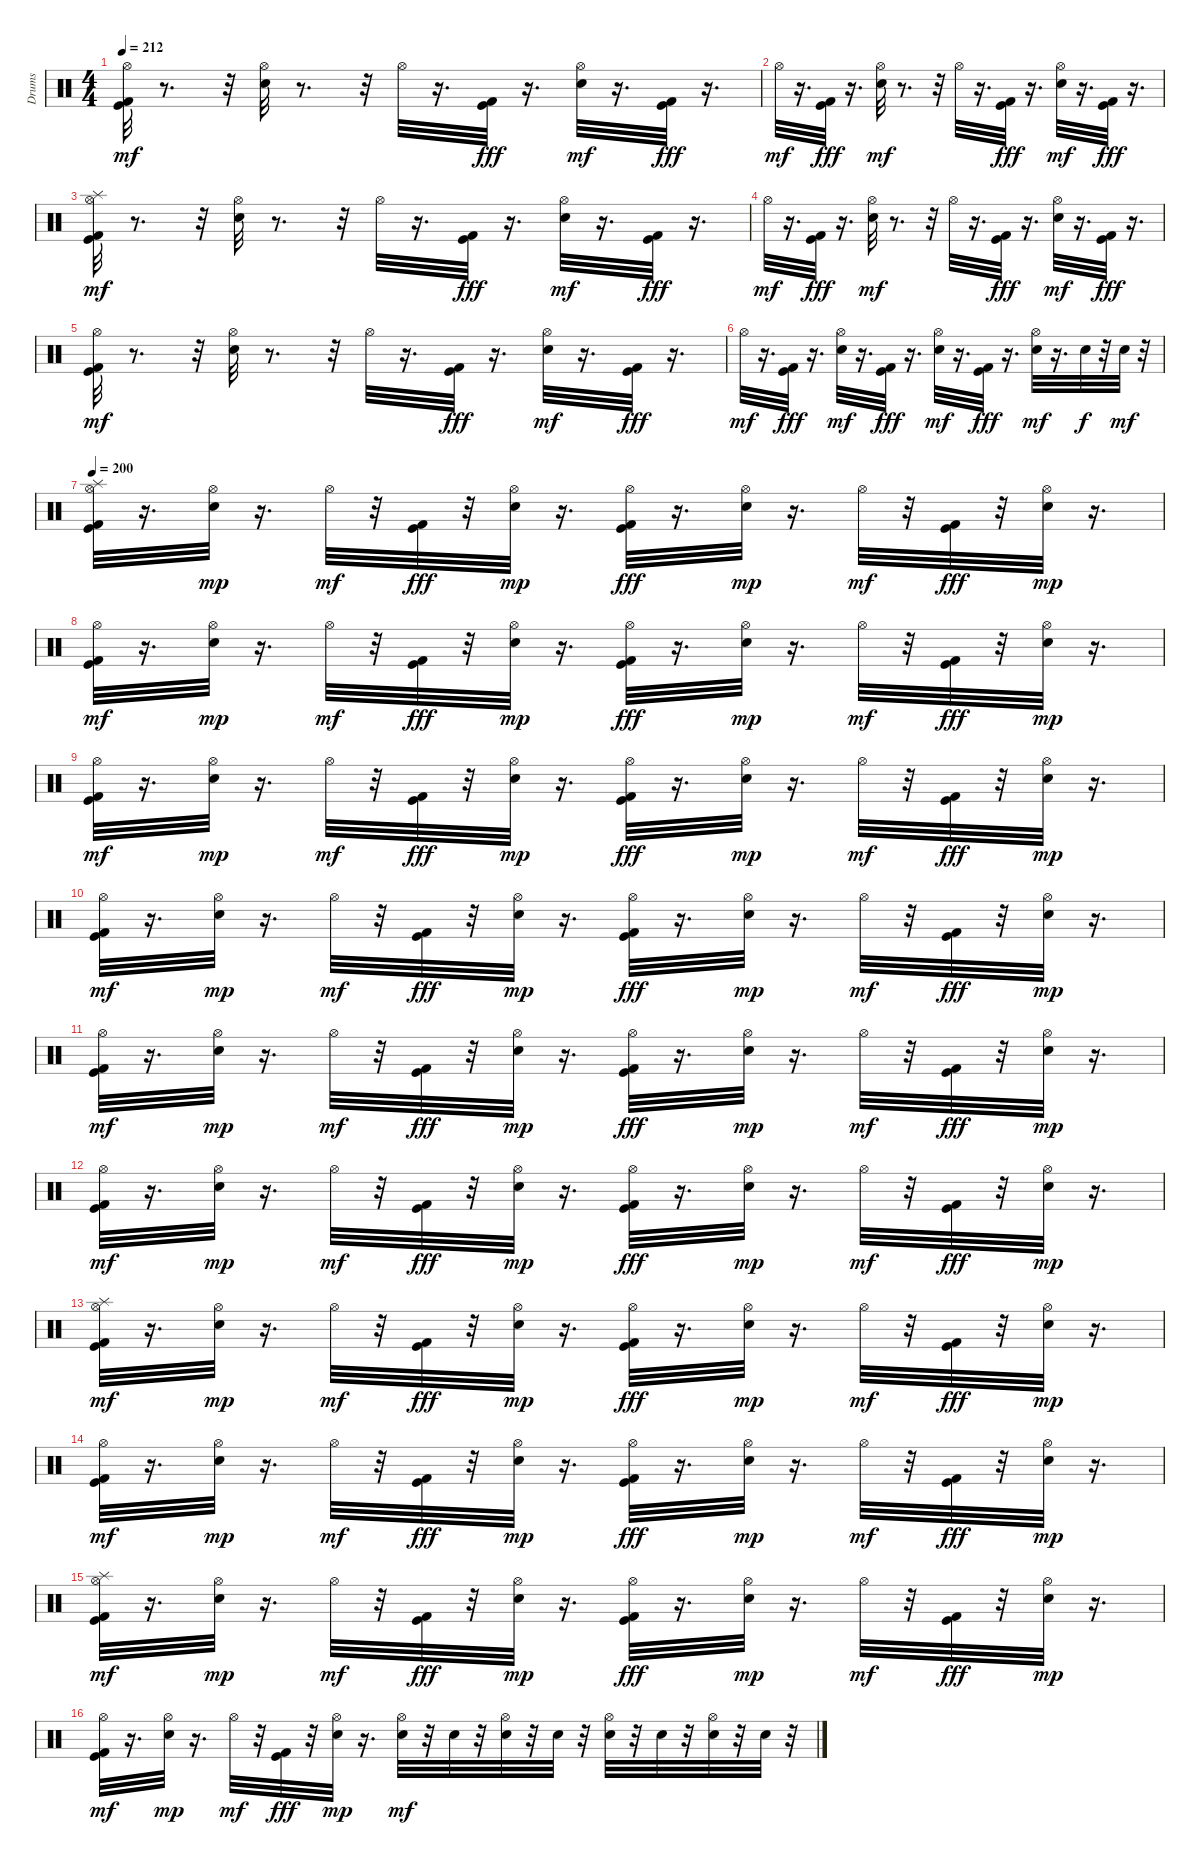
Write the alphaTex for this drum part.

\track ("Drums" "Drums") {instrument percussion}
\staff {score}
\articulation defaults
\ts (4 4)
\tempo 212
\clef neutral
\ks c
("Kick (hit) 2" "Kick (hit)" "Hi-Hat (open)").32{dy mf} r.8{d} r.32 ("Snare (hit) 2" "Hi-Hat (open)").32 r.8{d} r.32 "Hi-Hat (open)".32 r.16{d} ("Kick (hit)" "Kick (hit) 2").32{dy fff} r.16{d} ("Hi-Hat (open)" "Snare (hit) 2").32{dy mf} r.16{d} ("Kick (hit)" "Kick (hit) 2").32{dy fff} r.16{d} |
"Hi-Hat (open)".32{dy mf} r.16{d} ("Kick (hit)" "Kick (hit) 2").32{dy fff} r.16{d} ("Hi-Hat (open)" "Snare (hit) 2").32{dy mf} r.8{d} r.32 "Hi-Hat (open)".32 r.16{d} ("Kick (hit)" "Kick (hit) 2").32{dy fff} r.16{d} ("Hi-Hat (open)" "Snare (hit) 2").32{dy mf} r.16{d} ("Kick (hit)" "Kick (hit) 2").32{dy fff} r.16{d} |
("Kick (hit) 2" "Kick (hit)" "Hi-Hat (open)" "Splash (hit)").32{dy mf} r.8{d} r.32 ("Snare (hit) 2" "Hi-Hat (open)").32 r.8{d} r.32 "Hi-Hat (open)".32 r.16{d} ("Kick (hit)" "Kick (hit) 2").32{dy fff} r.16{d} ("Hi-Hat (open)" "Snare (hit) 2").32{dy mf} r.16{d} ("Kick (hit)" "Kick (hit) 2").32{dy fff} r.16{d} |
"Hi-Hat (open)".32{dy mf} r.16{d} ("Kick (hit)" "Kick (hit) 2").32{dy fff} r.16{d} ("Hi-Hat (open)" "Snare (hit) 2").32{dy mf} r.8{d} r.32 "Hi-Hat (open)".32 r.16{d} ("Kick (hit)" "Kick (hit) 2").32{dy fff} r.16{d} ("Hi-Hat (open)" "Snare (hit) 2").32{dy mf} r.16{d} ("Kick (hit)" "Kick (hit) 2").32{dy fff} r.16{d} |
("Kick (hit) 2" "Kick (hit)" "Hi-Hat (open)").32{dy mf} r.8{d} r.32 ("Snare (hit) 2" "Hi-Hat (open)").32 r.8{d} r.32 "Hi-Hat (open)".32 r.16{d} ("Kick (hit)" "Kick (hit) 2").32{dy fff} r.16{d} ("Hi-Hat (open)" "Snare (hit) 2").32{dy mf} r.16{d} ("Kick (hit)" "Kick (hit) 2").32{dy fff} r.16{d} |
"Hi-Hat (open)".32{dy mf} r.16{d} ("Kick (hit)" "Kick (hit) 2").32{dy fff} r.16{d} ("Hi-Hat (open)" "Snare (hit) 2").32{dy mf} r.16{d} ("Kick (hit)" "Kick (hit) 2").32{dy fff} r.16{d} ("Hi-Hat (open)" "Snare (hit) 2").32{dy mf} r.16{d} ("Kick (hit)" "Kick (hit) 2").32{dy fff} r.16{d} ("Hi-Hat (open)" "Snare (hit) 2").32{dy mf} r.16{d} "Snare (hit) 2".32{dy f} r.32 "Snare (hit) 2".32{dy mf} r.32 |
\tempo 200
("Kick (hit) 2" "Kick (hit)" "Splash (hit)" "Hi-Hat (open)").32 r.16{d} ("Hi-Hat (open)" "Snare (hit) 2").32{dy mp} r.16{d} "Hi-Hat (open)".32{dy mf} r.32 ("Kick (hit)" "Kick (hit) 2").32{dy fff} r.32 ("Hi-Hat (open)" "Snare (hit) 2").32{dy mp} r.16{d} ("Hi-Hat (open)" "Kick (hit) 2" "Kick (hit)").32{dy fff} r.16{d} ("Hi-Hat (open)" "Snare (hit) 2").32{dy mp} r.16{d} "Hi-Hat (open)".32{dy mf} r.32 ("Kick (hit)" "Kick (hit) 2").32{dy fff} r.32 ("Hi-Hat (open)" "Snare (hit) 2").32{dy mp} r.16{d} |
("Kick (hit) 2" "Kick (hit)" "Hi-Hat (open)").32{dy mf} r.16{d} ("Hi-Hat (open)" "Snare (hit) 2").32{dy mp} r.16{d} "Hi-Hat (open)".32{dy mf} r.32 ("Kick (hit)" "Kick (hit) 2").32{dy fff} r.32 ("Hi-Hat (open)" "Snare (hit) 2").32{dy mp} r.16{d} ("Hi-Hat (open)" "Kick (hit) 2" "Kick (hit)").32{dy fff} r.16{d} ("Hi-Hat (open)" "Snare (hit) 2").32{dy mp} r.16{d} "Hi-Hat (open)".32{dy mf} r.32 ("Kick (hit)" "Kick (hit) 2").32{dy fff} r.32 ("Hi-Hat (open)" "Snare (hit) 2").32{dy mp} r.16{d} |
("Kick (hit) 2" "Kick (hit)" "Hi-Hat (open)").32{dy mf} r.16{d} ("Hi-Hat (open)" "Snare (hit) 2").32{dy mp} r.16{d} "Hi-Hat (open)".32{dy mf} r.32 ("Kick (hit)" "Kick (hit) 2").32{dy fff} r.32 ("Hi-Hat (open)" "Snare (hit) 2").32{dy mp} r.16{d} ("Hi-Hat (open)" "Kick (hit) 2" "Kick (hit)").32{dy fff} r.16{d} ("Hi-Hat (open)" "Snare (hit) 2").32{dy mp} r.16{d} "Hi-Hat (open)".32{dy mf} r.32 ("Kick (hit)" "Kick (hit) 2").32{dy fff} r.32 ("Hi-Hat (open)" "Snare (hit) 2").32{dy mp} r.16{d} |
("Kick (hit) 2" "Kick (hit)" "Hi-Hat (open)").32{dy mf} r.16{d} ("Hi-Hat (open)" "Snare (hit) 2").32{dy mp} r.16{d} "Hi-Hat (open)".32{dy mf} r.32 ("Kick (hit)" "Kick (hit) 2").32{dy fff} r.32 ("Hi-Hat (open)" "Snare (hit) 2").32{dy mp} r.16{d} ("Hi-Hat (open)" "Kick (hit) 2" "Kick (hit)").32{dy fff} r.16{d} ("Hi-Hat (open)" "Snare (hit) 2").32{dy mp} r.16{d} "Hi-Hat (open)".32{dy mf} r.32 ("Kick (hit)" "Kick (hit) 2").32{dy fff} r.32 ("Hi-Hat (open)" "Snare (hit) 2").32{dy mp} r.16{d} |
("Kick (hit) 2" "Kick (hit)" "Hi-Hat (open)").32{dy mf} r.16{d} ("Hi-Hat (open)" "Snare (hit) 2").32{dy mp} r.16{d} "Hi-Hat (open)".32{dy mf} r.32 ("Kick (hit)" "Kick (hit) 2").32{dy fff} r.32 ("Hi-Hat (open)" "Snare (hit) 2").32{dy mp} r.16{d} ("Hi-Hat (open)" "Kick (hit) 2" "Kick (hit)").32{dy fff} r.16{d} ("Hi-Hat (open)" "Snare (hit) 2").32{dy mp} r.16{d} "Hi-Hat (open)".32{dy mf} r.32 ("Kick (hit)" "Kick (hit) 2").32{dy fff} r.32 ("Hi-Hat (open)" "Snare (hit) 2").32{dy mp} r.16{d} |
("Kick (hit) 2" "Kick (hit)" "Hi-Hat (open)").32{dy mf} r.16{d} ("Hi-Hat (open)" "Snare (hit) 2").32{dy mp} r.16{d} "Hi-Hat (open)".32{dy mf} r.32 ("Kick (hit)" "Kick (hit) 2").32{dy fff} r.32 ("Hi-Hat (open)" "Snare (hit) 2").32{dy mp} r.16{d} ("Hi-Hat (open)" "Kick (hit) 2" "Kick (hit)").32{dy fff} r.16{d} ("Hi-Hat (open)" "Snare (hit) 2").32{dy mp} r.16{d} "Hi-Hat (open)".32{dy mf} r.32 ("Kick (hit)" "Kick (hit) 2").32{dy fff} r.32 ("Hi-Hat (open)" "Snare (hit) 2").32{dy mp} r.16{d} |
("Kick (hit) 2" "Kick (hit)" "Hi-Hat (open)" "Splash (hit)").32{dy mf} r.16{d} ("Hi-Hat (open)" "Snare (hit) 2").32{dy mp} r.16{d} "Hi-Hat (open)".32{dy mf} r.32 ("Kick (hit)" "Kick (hit) 2").32{dy fff} r.32 ("Hi-Hat (open)" "Snare (hit) 2").32{dy mp} r.16{d} ("Hi-Hat (open)" "Kick (hit) 2" "Kick (hit)").32{dy fff} r.16{d} ("Hi-Hat (open)" "Snare (hit) 2").32{dy mp} r.16{d} "Hi-Hat (open)".32{dy mf} r.32 ("Kick (hit)" "Kick (hit) 2").32{dy fff} r.32 ("Hi-Hat (open)" "Snare (hit) 2").32{dy mp} r.16{d} |
("Kick (hit) 2" "Kick (hit)" "Hi-Hat (open)").32{dy mf} r.16{d} ("Hi-Hat (open)" "Snare (hit) 2").32{dy mp} r.16{d} "Hi-Hat (open)".32{dy mf} r.32 ("Kick (hit)" "Kick (hit) 2").32{dy fff} r.32 ("Hi-Hat (open)" "Snare (hit) 2").32{dy mp} r.16{d} ("Hi-Hat (open)" "Kick (hit) 2" "Kick (hit)").32{dy fff} r.16{d} ("Hi-Hat (open)" "Snare (hit) 2").32{dy mp} r.16{d} "Hi-Hat (open)".32{dy mf} r.32 ("Kick (hit)" "Kick (hit) 2").32{dy fff} r.32 ("Hi-Hat (open)" "Snare (hit) 2").32{dy mp} r.16{d} |
("Kick (hit) 2" "Kick (hit)" "Hi-Hat (open)" "Splash (hit)").32{dy mf} r.16{d} ("Hi-Hat (open)" "Snare (hit) 2").32{dy mp} r.16{d} "Hi-Hat (open)".32{dy mf} r.32 ("Kick (hit)" "Kick (hit) 2").32{dy fff} r.32 ("Hi-Hat (open)" "Snare (hit) 2").32{dy mp} r.16{d} ("Hi-Hat (open)" "Kick (hit) 2" "Kick (hit)").32{dy fff} r.16{d} ("Hi-Hat (open)" "Snare (hit) 2").32{dy mp} r.16{d} "Hi-Hat (open)".32{dy mf} r.32 ("Kick (hit)" "Kick (hit) 2").32{dy fff} r.32 ("Hi-Hat (open)" "Snare (hit) 2").32{dy mp} r.16{d} |
("Kick (hit) 2" "Kick (hit)" "Hi-Hat (open)").32{dy mf} r.16{d} ("Hi-Hat (open)" "Snare (hit) 2").32{dy mp} r.16{d} "Hi-Hat (open)".32{dy mf} r.32 ("Kick (hit)" "Kick (hit) 2").32{dy fff} r.32 ("Hi-Hat (open)" "Snare (hit) 2").32{dy mp} r.16{d} ("Hi-Hat (open)" "Snare (hit) 2").32{dy mf} r.32 "Snare (hit) 2".32 r.32 ("Hi-Hat (open)" "Snare (hit) 2").32 r.32 "Snare (hit) 2".32 r.32 ("Hi-Hat (open)" "Snare (hit) 2").32 r.32 "Snare (hit) 2".32 r.32 ("Hi-Hat (open)" "Snare (hit) 2").32 r.32 "Snare (hit) 2".32 r.32
